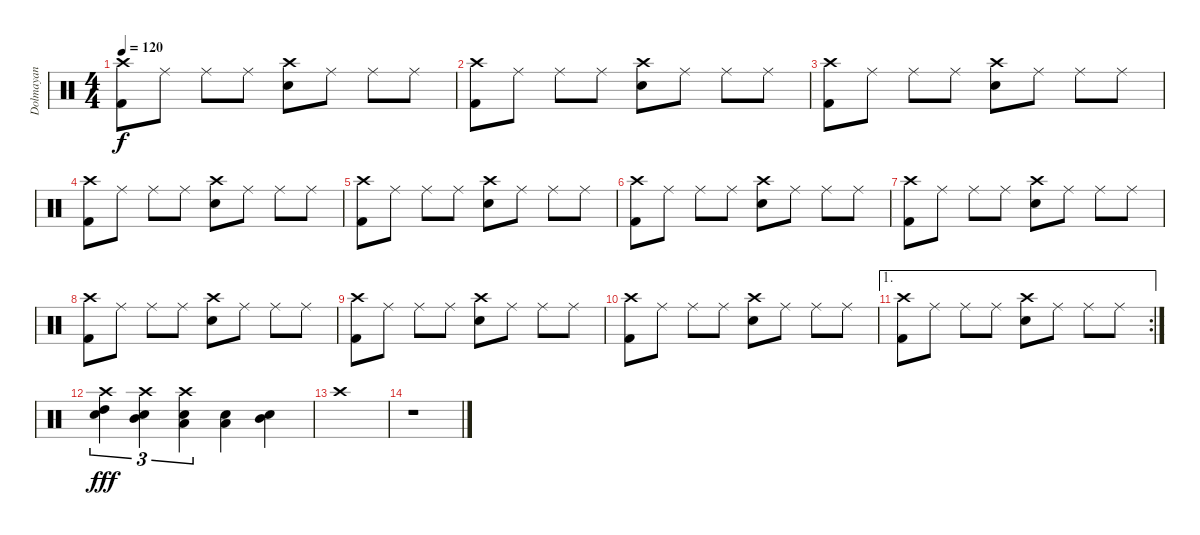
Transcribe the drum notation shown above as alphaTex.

\track ("Dolmayan" "Dolmayan") {instrument percussion}
\staff {score}
\articulation defaults
\ts (4 4)
\tempo 120
\clef neutral
\ks c
("Crash high (hit)" "Kick (hit) 2").8{dy f} "Ride (middle)".8 "Ride (middle)".8 "Ride (middle)".8 ("Crash high (hit)" "Snare (hit) 2").8 "Ride (middle)".8 "Ride (middle)".8 "Ride (middle)".8 |
("Crash high (hit)" "Kick (hit) 2").8 "Ride (middle)".8 "Ride (middle)".8 "Ride (middle)".8 ("Crash high (hit)" "Snare (hit) 2").8 "Ride (middle)".8 "Ride (middle)".8 "Ride (middle)".8 |
("Crash high (hit)" "Kick (hit) 2").8 "Ride (middle)".8 "Ride (middle)".8 "Ride (middle)".8 ("Crash high (hit)" "Snare (hit) 2").8 "Ride (middle)".8 "Ride (middle)".8 "Ride (middle)".8 |
("Crash high (hit)" "Kick (hit) 2").8 "Ride (middle)".8 "Ride (middle)".8 "Ride (middle)".8 ("Crash high (hit)" "Snare (hit) 2").8 "Ride (middle)".8 "Ride (middle)".8 "Ride (middle)".8 |
("Crash high (hit)" "Kick (hit) 2").8 "Ride (middle)".8 "Ride (middle)".8 "Ride (middle)".8 ("Crash high (hit)" "Snare (hit) 2").8 "Ride (middle)".8 "Ride (middle)".8 "Ride (middle)".8 |
("Crash high (hit)" "Kick (hit) 2").8 "Ride (middle)".8 "Ride (middle)".8 "Ride (middle)".8 ("Crash high (hit)" "Snare (hit) 2").8 "Ride (middle)".8 "Ride (middle)".8 "Ride (middle)".8 |
("Crash high (hit)" "Kick (hit) 2").8 "Ride (middle)".8 "Ride (middle)".8 "Ride (middle)".8 ("Crash high (hit)" "Snare (hit) 2").8 "Ride (middle)".8 "Ride (middle)".8 "Ride (middle)".8 |
("Crash high (hit)" "Kick (hit) 2").8 "Ride (middle)".8 "Ride (middle)".8 "Ride (middle)".8 ("Crash high (hit)" "Snare (hit) 2").8 "Ride (middle)".8 "Ride (middle)".8 "Ride (middle)".8 |
("Crash high (hit)" "Kick (hit) 2").8 "Ride (middle)".8 "Ride (middle)".8 "Ride (middle)".8 ("Crash high (hit)" "Snare (hit) 2").8 "Ride (middle)".8 "Ride (middle)".8 "Ride (middle)".8 |
("Crash high (hit)" "Kick (hit) 2").8 "Ride (middle)".8 "Ride (middle)".8 "Ride (middle)".8 ("Crash high (hit)" "Snare (hit) 2").8 "Ride (middle)".8 "Ride (middle)".8 "Ride (middle)".8 |
\ae 1
\rc 2
("Crash high (hit)" "Kick (hit) 2").8 "Ride (middle)".8 "Ride (middle)".8 "Ride (middle)".8 ("Crash high (hit)" "Snare (hit) 2").8 "Ride (middle)".8 "Ride (middle)".8 "Ride (middle)".8 |
("Crash high (hit)" "High Tom (hit)" "Electric Snare (hit)").4{tu (3 2) dy fff} ("Crash high (hit)" "Mid Tom (hit)" "Electric Snare (hit)").4{tu (3 2)} ("Crash high (hit)" "Low Tom (hit)" "Electric Snare (hit)").4{tu (3 2)} ("Low Tom (hit)" "Electric Snare (hit)").4 ("Mid Tom (hit)" "Electric Snare (hit)").4 |
"Crash high (hit)".1 |
r.1
